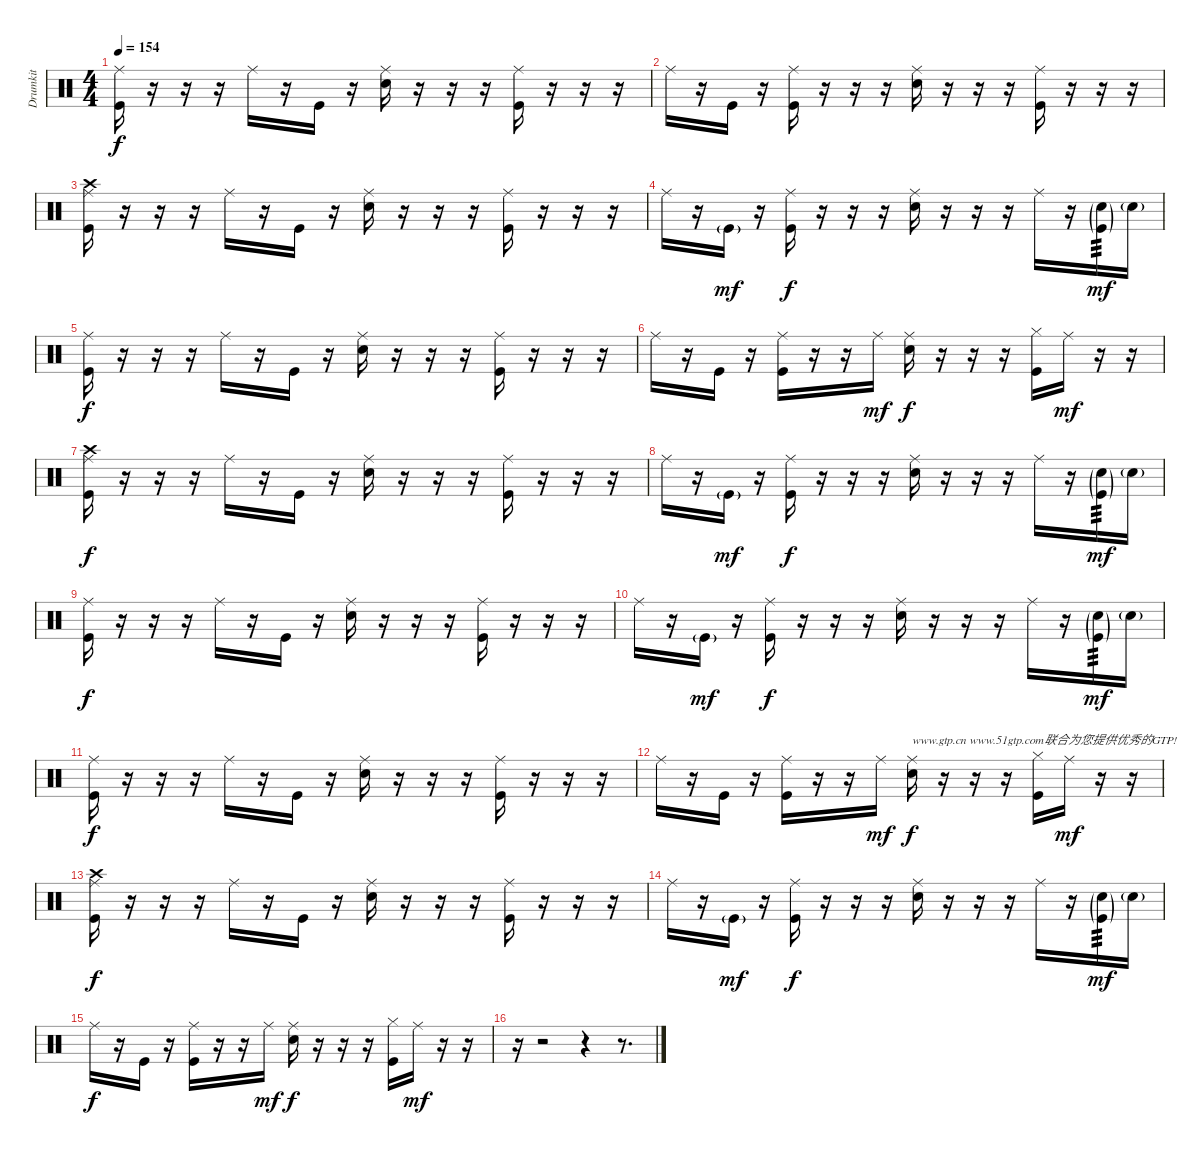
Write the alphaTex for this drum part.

\track ("Drumkit" "Drumkit") {instrument percussion}
\staff {score}
\articulation defaults
\ts (4 4)
\tempo 154
\clef neutral
\ks c
("Ride (middle)" "Kick (hit)").16{dy f} r.16 r.16 r.16 "Ride (middle)".16 r.16 "Kick (hit)".16 r.16 ("Ride (middle)" "Snare (hit) 2").16 r.16 r.16 r.16 ("Ride (middle)" "Kick (hit)").16 r.16 r.16 r.16 |
"Ride (middle)".16 r.16 "Kick (hit)".16 r.16 ("Ride (middle)" "Kick (hit)").16 r.16 r.16 r.16 ("Ride (middle)" "Snare (hit) 2").16 r.16 r.16 r.16 ("Ride (middle)" "Kick (hit)").16 r.16 r.16 r.16 |
("Crash high (hit)" "Ride (middle)" "Kick (hit)").16 r.16 r.16 r.16 "Ride (middle)".16 r.16 "Kick (hit)".16 r.16 ("Ride (middle)" "Snare (hit) 2").16 r.16 r.16 r.16 ("Ride (middle)" "Kick (hit)").16 r.16 r.16 r.16 |
"Ride (middle)".16 r.16 "Kick (hit)"{g}.16{dy mf} r.16 ("Ride (middle)" "Kick (hit)").16{dy f} r.16 r.16 r.16 ("Ride (middle)" "Snare (hit) 2").16 r.16 r.16 r.16 "Ride (middle)".16 r.16 ("Snare (hit) 2"{g} "Kick (hit)"{g}).16{tp 3 dy mf} "Snare (hit) 2"{g}.16 |
("Ride (middle)" "Kick (hit)").16{dy f} r.16 r.16 r.16 "Ride (middle)".16 r.16 "Kick (hit)".16 r.16 ("Ride (middle)" "Snare (hit) 2").16 r.16 r.16 r.16 ("Ride (middle)" "Kick (hit)").16 r.16 r.16 r.16 |
"Ride (middle)".16 r.16 "Kick (hit)".16 r.16 ("Ride (middle)" "Kick (hit)").16 r.16 r.16 "Ride (middle)".16{dy mf} ("Ride (middle)" "Snare (hit) 2").16{dy f} r.16 r.16 r.16 ("Hi-Hat (closed)" "Kick (hit)").16 "Ride (middle)".16{dy mf} r.16 r.16 |
("Crash high (hit)" "Ride (middle)" "Kick (hit)").16{dy f} r.16 r.16 r.16 "Ride (middle)".16 r.16 "Kick (hit)".16 r.16 ("Ride (middle)" "Snare (hit) 2").16 r.16 r.16 r.16 ("Ride (middle)" "Kick (hit)").16 r.16 r.16 r.16 |
"Ride (middle)".16 r.16 "Kick (hit)"{g}.16{dy mf} r.16 ("Ride (middle)" "Kick (hit)").16{dy f} r.16 r.16 r.16 ("Ride (middle)" "Snare (hit) 2").16 r.16 r.16 r.16 "Ride (middle)".16 r.16 ("Snare (hit) 2"{g} "Kick (hit)"{g}).16{tp 3 dy mf} "Snare (hit) 2"{g}.16 |
("Ride (middle)" "Kick (hit)").16{dy f} r.16 r.16 r.16 "Ride (middle)".16 r.16 "Kick (hit)".16 r.16 ("Ride (middle)" "Snare (hit) 2").16 r.16 r.16 r.16 ("Ride (middle)" "Kick (hit)").16 r.16 r.16 r.16 |
"Ride (middle)".16 r.16 "Kick (hit)"{g}.16{dy mf} r.16 ("Ride (middle)" "Kick (hit)").16{dy f} r.16 r.16 r.16 ("Ride (middle)" "Snare (hit) 2").16 r.16 r.16 r.16 "Ride (middle)".16 r.16 ("Snare (hit) 2"{g} "Kick (hit)"{g}).16{tp 3 dy mf} "Snare (hit) 2"{g}.16 |
("Ride (middle)" "Kick (hit)").16{dy f} r.16 r.16 r.16 "Ride (middle)".16 r.16 "Kick (hit)".16 r.16 ("Ride (middle)" "Snare (hit) 2").16 r.16 r.16 r.16 ("Ride (middle)" "Kick (hit)").16 r.16 r.16 r.16 |
"Ride (middle)".16 r.16 "Kick (hit)".16 r.16 ("Ride (middle)" "Kick (hit)").16 r.16 r.16 "Ride (middle)".16{dy mf} ("Ride (middle)" "Snare (hit) 2").16{txt "www.gtp.cn www.51gtp.com联合为您提供优秀的GTP!" dy f} r.16 r.16 r.16 ("Hi-Hat (closed)" "Kick (hit)").16 "Ride (middle)".16{dy mf} r.16 r.16 |
("Crash high (hit)" "Ride (middle)" "Kick (hit)").16{dy f} r.16 r.16 r.16 "Ride (middle)".16 r.16 "Kick (hit)".16 r.16 ("Ride (middle)" "Snare (hit) 2").16 r.16 r.16 r.16 ("Ride (middle)" "Kick (hit)").16 r.16 r.16 r.16 |
"Ride (middle)".16 r.16 "Kick (hit)"{g}.16{dy mf} r.16 ("Ride (middle)" "Kick (hit)").16{dy f} r.16 r.16 r.16 ("Ride (middle)" "Snare (hit) 2").16 r.16 r.16 r.16 "Ride (middle)".16 r.16 ("Snare (hit) 2"{g} "Kick (hit)"{g}).16{tp 3 dy mf} "Snare (hit) 2"{g}.16 |
"Ride (middle)".16{dy f} r.16 "Kick (hit)".16 r.16 ("Ride (middle)" "Kick (hit)").16 r.16 r.16 "Ride (middle)".16{dy mf} ("Ride (middle)" "Snare (hit) 2").16{dy f} r.16 r.16 r.16 ("Hi-Hat (closed)" "Kick (hit)").16 "Ride (middle)".16{dy mf} r.16 r.16 |
r.16 r.2 r.4 r.8{d}
